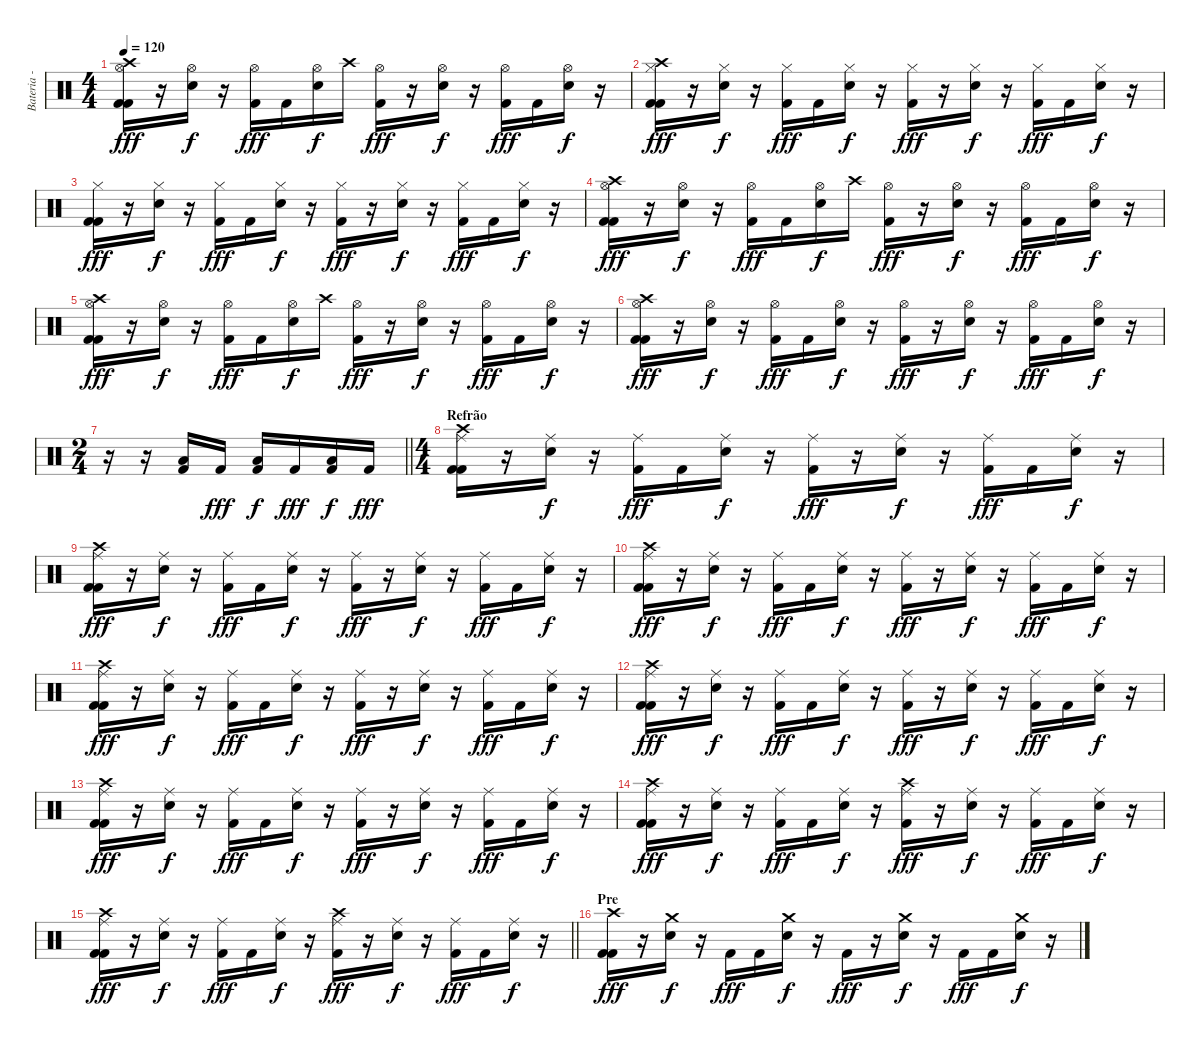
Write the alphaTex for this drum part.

\track ("Bateria - Larzon" "Bateria - ") {instrument percussion}
\staff {score}
\articulation defaults
\ts (4 4)
\tempo 120
\clef neutral
\ks c
("Kick (hit) 2" "Kick (hit) 2" "Crash high (hit)" "Hi-Hat (open)").16{dy fff} r.16 ("Snare (hit) 2" "Hi-Hat (open)").16{dy f} r.16 ("Kick (hit) 2" "Hi-Hat (open)").16{dy fff} "Kick (hit) 2".16 ("Snare (hit) 2" "Hi-Hat (open)").16{dy f} "Crash high (hit)".16 ("Kick (hit) 2" "Hi-Hat (open)").16{dy fff} r.16 ("Snare (hit) 2" "Hi-Hat (open)").16{dy f} r.16 ("Kick (hit) 2" "Hi-Hat (open)").16{dy fff} "Kick (hit) 2".16 ("Snare (hit) 2" "Hi-Hat (open)").16{dy f} r.16 |
("Kick (hit) 2" "Kick (hit) 2" "Crash high (hit)" "Hi-Hat (closed)").16{dy fff} r.16 ("Snare (hit) 2" "Hi-Hat (closed)").16{dy f} r.16 ("Kick (hit) 2" "Hi-Hat (closed)").16{dy fff} "Kick (hit) 2".16 ("Snare (hit) 2" "Hi-Hat (closed)").16{dy f} r.16 ("Kick (hit) 2" "Hi-Hat (closed)").16{dy fff} r.16 ("Snare (hit) 2" "Hi-Hat (closed)").16{dy f} r.16 ("Kick (hit) 2" "Hi-Hat (closed)").16{dy fff} "Kick (hit) 2".16 ("Snare (hit) 2" "Hi-Hat (closed)").16{dy f} r.16 |
("Kick (hit) 2" "Kick (hit) 2" "Hi-Hat (closed)").16{dy fff} r.16 ("Snare (hit) 2" "Hi-Hat (closed)").16{dy f} r.16 ("Kick (hit) 2" "Hi-Hat (closed)").16{dy fff} "Kick (hit) 2".16 ("Snare (hit) 2" "Hi-Hat (closed)").16{dy f} r.16 ("Kick (hit) 2" "Hi-Hat (closed)").16{dy fff} r.16 ("Snare (hit) 2" "Hi-Hat (closed)").16{dy f} r.16 ("Kick (hit) 2" "Hi-Hat (closed)").16{dy fff} "Kick (hit) 2".16 ("Snare (hit) 2" "Hi-Hat (closed)").16{dy f} r.16 |
("Kick (hit) 2" "Kick (hit) 2" "Crash high (hit)" "Hi-Hat (open)").16{dy fff} r.16 ("Snare (hit) 2" "Hi-Hat (open)").16{dy f} r.16 ("Kick (hit) 2" "Hi-Hat (open)").16{dy fff} "Kick (hit) 2".16 ("Snare (hit) 2" "Hi-Hat (open)").16{dy f} "Crash high (hit)".16 ("Kick (hit) 2" "Hi-Hat (open)").16{dy fff} r.16 ("Snare (hit) 2" "Hi-Hat (open)").16{dy f} r.16 ("Kick (hit) 2" "Hi-Hat (open)").16{dy fff} "Kick (hit) 2".16 ("Snare (hit) 2" "Hi-Hat (open)").16{dy f} r.16 |
("Kick (hit) 2" "Kick (hit) 2" "Crash high (hit)" "Hi-Hat (open)").16{dy fff} r.16 ("Snare (hit) 2" "Hi-Hat (open)").16{dy f} r.16 ("Kick (hit) 2" "Hi-Hat (open)").16{dy fff} "Kick (hit) 2".16 ("Snare (hit) 2" "Hi-Hat (open)").16{dy f} "Crash high (hit)".16 ("Kick (hit) 2" "Hi-Hat (open)").16{dy fff} r.16 ("Snare (hit) 2" "Hi-Hat (open)").16{dy f} r.16 ("Kick (hit) 2" "Hi-Hat (open)").16{dy fff} "Kick (hit) 2".16 ("Snare (hit) 2" "Hi-Hat (open)").16{dy f} r.16 |
("Kick (hit) 2" "Kick (hit) 2" "Crash high (hit)" "Hi-Hat (open)").16{dy fff} r.16 ("Snare (hit) 2" "Hi-Hat (open)").16{dy f} r.16 ("Kick (hit) 2" "Hi-Hat (open)").16{dy fff} "Kick (hit) 2".16 ("Snare (hit) 2" "Hi-Hat (open)").16{dy f} r.16 ("Kick (hit) 2" "Hi-Hat (open)").16{dy fff} r.16 ("Snare (hit) 2" "Hi-Hat (open)").16{dy f} r.16 ("Kick (hit) 2" "Hi-Hat (open)").16{dy fff} "Kick (hit) 2".16 ("Snare (hit) 2" "Hi-Hat (open)").16{dy f} r.16 |
\ts (2 4)
\barLineRight lightlight
r.16 r.16 ("Kick (hit) 2" "Low Floor Tom (hit)").16 "Kick (hit) 2".16{dy fff} ("Kick (hit) 2" "Low Floor Tom (hit)").16{dy f} "Kick (hit) 2".16{dy fff} ("Kick (hit) 2" "Low Floor Tom (hit)").16{dy f} "Kick (hit) 2".16{dy fff} |
\ts (4 4)
\section ("" "Refrão")
("Kick (hit) 2" "Kick (hit) 2" "Crash high (hit)" "Ride (middle)").16 r.16 ("Snare (hit) 2" "Ride (middle)").16{dy f} r.16 ("Kick (hit) 2" "Ride (middle)").16{dy fff} "Kick (hit) 2".16 ("Snare (hit) 2" "Ride (middle)").16{dy f} r.16 ("Kick (hit) 2" "Ride (middle)").16{dy fff} r.16 ("Snare (hit) 2" "Ride (middle)").16{dy f} r.16 ("Kick (hit) 2" "Ride (middle)").16{dy fff} "Kick (hit) 2".16 ("Snare (hit) 2" "Ride (middle)").16{dy f} r.16 |
("Kick (hit) 2" "Kick (hit) 2" "Crash high (hit)" "Ride (middle)").16{dy fff} r.16 ("Snare (hit) 2" "Ride (middle)").16{dy f} r.16 ("Kick (hit) 2" "Ride (middle)").16{dy fff} "Kick (hit) 2".16 ("Snare (hit) 2" "Ride (middle)").16{dy f} r.16 ("Kick (hit) 2" "Ride (middle)").16{dy fff} r.16 ("Snare (hit) 2" "Ride (middle)").16{dy f} r.16 ("Kick (hit) 2" "Ride (middle)").16{dy fff} "Kick (hit) 2".16 ("Snare (hit) 2" "Ride (middle)").16{dy f} r.16 |
("Kick (hit) 2" "Kick (hit) 2" "Crash high (hit)" "Ride (middle)").16{dy fff} r.16 ("Snare (hit) 2" "Ride (middle)").16{dy f} r.16 ("Kick (hit) 2" "Ride (middle)").16{dy fff} "Kick (hit) 2".16 ("Snare (hit) 2" "Ride (middle)").16{dy f} r.16 ("Kick (hit) 2" "Ride (middle)").16{dy fff} r.16 ("Snare (hit) 2" "Ride (middle)").16{dy f} r.16 ("Kick (hit) 2" "Ride (middle)").16{dy fff} "Kick (hit) 2".16 ("Snare (hit) 2" "Ride (middle)").16{dy f} r.16 |
("Kick (hit) 2" "Kick (hit) 2" "Crash high (hit)" "Ride (middle)").16{dy fff} r.16 ("Snare (hit) 2" "Ride (middle)").16{dy f} r.16 ("Kick (hit) 2" "Ride (middle)").16{dy fff} "Kick (hit) 2".16 ("Snare (hit) 2" "Ride (middle)").16{dy f} r.16 ("Kick (hit) 2" "Ride (middle)").16{dy fff} r.16 ("Snare (hit) 2" "Ride (middle)").16{dy f} r.16 ("Kick (hit) 2" "Ride (middle)").16{dy fff} "Kick (hit) 2".16 ("Snare (hit) 2" "Ride (middle)").16{dy f} r.16 |
("Kick (hit) 2" "Kick (hit) 2" "Crash high (hit)" "Ride (middle)").16{dy fff} r.16 ("Snare (hit) 2" "Ride (middle)").16{dy f} r.16 ("Kick (hit) 2" "Ride (middle)").16{dy fff} "Kick (hit) 2".16 ("Snare (hit) 2" "Ride (middle)").16{dy f} r.16 ("Kick (hit) 2" "Ride (middle)").16{dy fff} r.16 ("Snare (hit) 2" "Ride (middle)").16{dy f} r.16 ("Kick (hit) 2" "Ride (middle)").16{dy fff} "Kick (hit) 2".16 ("Snare (hit) 2" "Ride (middle)").16{dy f} r.16 |
("Kick (hit) 2" "Kick (hit) 2" "Crash high (hit)" "Ride (middle)").16{dy fff} r.16 ("Snare (hit) 2" "Ride (middle)").16{dy f} r.16 ("Kick (hit) 2" "Ride (middle)").16{dy fff} "Kick (hit) 2".16 ("Snare (hit) 2" "Ride (middle)").16{dy f} r.16 ("Kick (hit) 2" "Ride (middle)").16{dy fff} r.16 ("Snare (hit) 2" "Ride (middle)").16{dy f} r.16 ("Kick (hit) 2" "Ride (middle)").16{dy fff} "Kick (hit) 2".16 ("Snare (hit) 2" "Ride (middle)").16{dy f} r.16 |
("Kick (hit) 2" "Kick (hit) 2" "Crash high (hit)" "Ride (middle)").16{dy fff} r.16 ("Snare (hit) 2" "Ride (middle)").16{dy f} r.16 ("Kick (hit) 2" "Ride (middle)").16{dy fff} "Kick (hit) 2".16 ("Snare (hit) 2" "Ride (middle)").16{dy f} r.16 ("Kick (hit) 2" "Crash high (hit)" "Ride (middle)").16{dy fff} r.16 ("Snare (hit) 2" "Ride (middle)").16{dy f} r.16 ("Kick (hit) 2" "Ride (middle)").16{dy fff} "Kick (hit) 2".16 ("Snare (hit) 2" "Ride (middle)").16{dy f} r.16 |
\barLineRight lightlight
("Kick (hit) 2" "Kick (hit) 2" "Crash high (hit)" "Ride (middle)").16{dy fff} r.16 ("Snare (hit) 2" "Ride (middle)").16{dy f} r.16 ("Kick (hit) 2" "Ride (middle)").16{dy fff} "Kick (hit) 2".16 ("Snare (hit) 2" "Ride (middle)").16{dy f} r.16 ("Kick (hit) 2" "Crash high (hit)" "Ride (middle)").16{dy fff} r.16 ("Snare (hit) 2" "Ride (middle)").16{dy f} r.16 ("Kick (hit) 2" "Ride (middle)").16{dy fff} "Kick (hit) 2".16 ("Snare (hit) 2" "Ride (middle)").16{dy f} r.16 |
\section ("" "Pre")
("Kick (hit) 2" "Kick (hit) 2" "Crash high (hit)").16{dy fff} r.16 ("Snare (hit) 2" "Crash medium (hit)").16{dy f} r.16 "Kick (hit) 2".16{dy fff} "Kick (hit) 2".16 ("Snare (hit) 2" "Crash medium (hit)").16{dy f} r.16 "Kick (hit) 2".16{dy fff} r.16 ("Snare (hit) 2" "Crash medium (hit)").16{dy f} r.16 "Kick (hit) 2".16{dy fff} "Kick (hit) 2".16 ("Snare (hit) 2" "Crash medium (hit)").16{dy f} r.16
